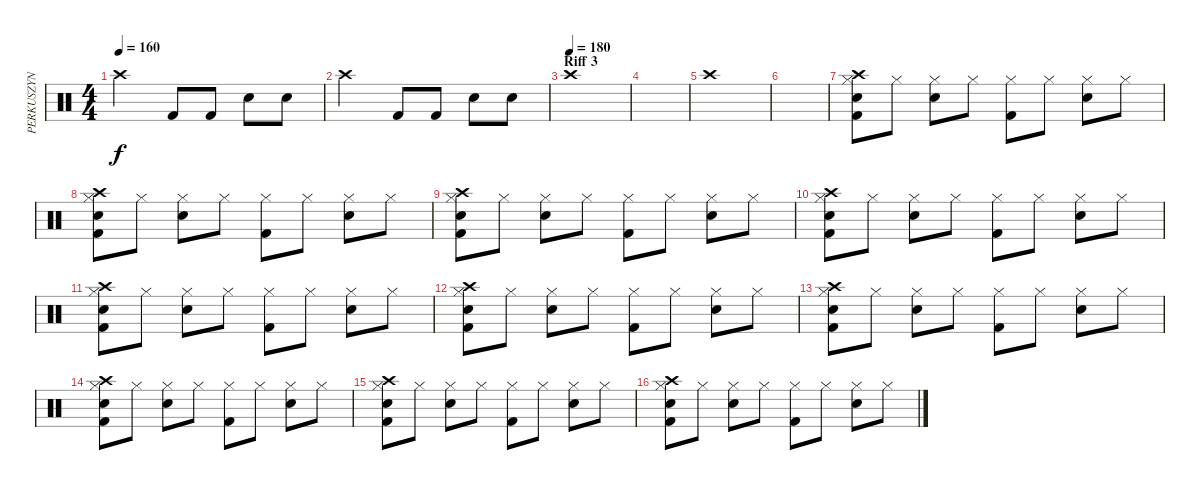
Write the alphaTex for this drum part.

\track ("PERKUSZYN" "PERKUSZYN") {instrument percussion}
\staff {score}
\articulation defaults
\ts (4 4)
\tempo 160
\clef neutral
\ks c "Crash high (hit)".2{dy f} "Kick (hit) 2".8 "Kick (hit) 2".8 "Snare (hit) 2".8 "Snare (hit) 2".8
|
"Crash high (hit)".2 "Kick (hit) 2".8 "Kick (hit) 2".8 "Snare (hit) 2".8 "Snare (hit) 2".8 |
\section ("" "Riff 3")
\tempo (180)
"Crash high (hit)".1 |
|
"Crash high (hit)".1 |
|
("Kick (hit) 2" "Snare (hit) 2" "Hi-Hat (closed)" "Crash high (hit)").8 "Hi-Hat (closed)".8 ("Snare (hit) 2" "Hi-Hat (closed)").8 "Hi-Hat (closed)".8 ("Kick (hit) 2" "Hi-Hat (closed)").8 "Hi-Hat (closed)".8 ("Snare (hit) 2" "Hi-Hat (closed)").8 "Hi-Hat (closed)".8 |
("Kick (hit) 2" "Snare (hit) 2" "Hi-Hat (closed)" "Crash high (hit)").8 "Hi-Hat (closed)".8 ("Snare (hit) 2" "Hi-Hat (closed)").8 "Hi-Hat (closed)".8 ("Kick (hit) 2" "Hi-Hat (closed)").8 "Hi-Hat (closed)".8 ("Snare (hit) 2" "Hi-Hat (closed)").8 "Hi-Hat (closed)".8 |
("Kick (hit) 2" "Snare (hit) 2" "Hi-Hat (closed)" "Crash high (hit)").8 "Hi-Hat (closed)".8 ("Snare (hit) 2" "Hi-Hat (closed)").8 "Hi-Hat (closed)".8 ("Kick (hit) 2" "Hi-Hat (closed)").8 "Hi-Hat (closed)".8 ("Snare (hit) 2" "Hi-Hat (closed)").8 "Hi-Hat (closed)".8 |
("Kick (hit) 2" "Snare (hit) 2" "Hi-Hat (closed)" "Crash high (hit)").8 "Hi-Hat (closed)".8 ("Snare (hit) 2" "Hi-Hat (closed)").8 "Hi-Hat (closed)".8 ("Kick (hit) 2" "Hi-Hat (closed)").8 "Hi-Hat (closed)".8 ("Snare (hit) 2" "Hi-Hat (closed)").8 "Hi-Hat (closed)".8 |
("Kick (hit) 2" "Snare (hit) 2" "Hi-Hat (closed)" "Crash high (hit)").8 "Hi-Hat (closed)".8 ("Snare (hit) 2" "Hi-Hat (closed)").8 "Hi-Hat (closed)".8 ("Kick (hit) 2" "Hi-Hat (closed)").8 "Hi-Hat (closed)".8 ("Snare (hit) 2" "Hi-Hat (closed)").8 "Hi-Hat (closed)".8 |
("Kick (hit) 2" "Snare (hit) 2" "Hi-Hat (closed)" "Crash high (hit)").8 "Hi-Hat (closed)".8 ("Snare (hit) 2" "Hi-Hat (closed)").8 "Hi-Hat (closed)".8 ("Kick (hit) 2" "Hi-Hat (closed)").8 "Hi-Hat (closed)".8 ("Snare (hit) 2" "Hi-Hat (closed)").8 "Hi-Hat (closed)".8 |
("Kick (hit) 2" "Snare (hit) 2" "Hi-Hat (closed)" "Crash high (hit)").8 "Hi-Hat (closed)".8 ("Snare (hit) 2" "Hi-Hat (closed)").8 "Hi-Hat (closed)".8 ("Kick (hit) 2" "Hi-Hat (closed)").8 "Hi-Hat (closed)".8 ("Snare (hit) 2" "Hi-Hat (closed)").8 "Hi-Hat (closed)".8 |
("Kick (hit) 2" "Snare (hit) 2" "Hi-Hat (closed)" "Crash high (hit)").8 "Hi-Hat (closed)".8 ("Snare (hit) 2" "Hi-Hat (closed)").8 "Hi-Hat (closed)".8 ("Kick (hit) 2" "Hi-Hat (closed)").8 "Hi-Hat (closed)".8 ("Snare (hit) 2" "Hi-Hat (closed)").8 "Hi-Hat (closed)".8 |
("Kick (hit) 2" "Snare (hit) 2" "Hi-Hat (closed)" "Crash high (hit)").8 "Hi-Hat (closed)".8 ("Snare (hit) 2" "Hi-Hat (closed)").8 "Hi-Hat (closed)".8 ("Kick (hit) 2" "Hi-Hat (closed)").8 "Hi-Hat (closed)".8 ("Snare (hit) 2" "Hi-Hat (closed)").8 "Hi-Hat (closed)".8 |
("Kick (hit) 2" "Snare (hit) 2" "Hi-Hat (closed)" "Crash high (hit)").8 "Hi-Hat (closed)".8 ("Snare (hit) 2" "Hi-Hat (closed)").8 "Hi-Hat (closed)".8 ("Kick (hit) 2" "Hi-Hat (closed)").8 "Hi-Hat (closed)".8 ("Snare (hit) 2" "Hi-Hat (closed)").8 "Hi-Hat (closed)".8
